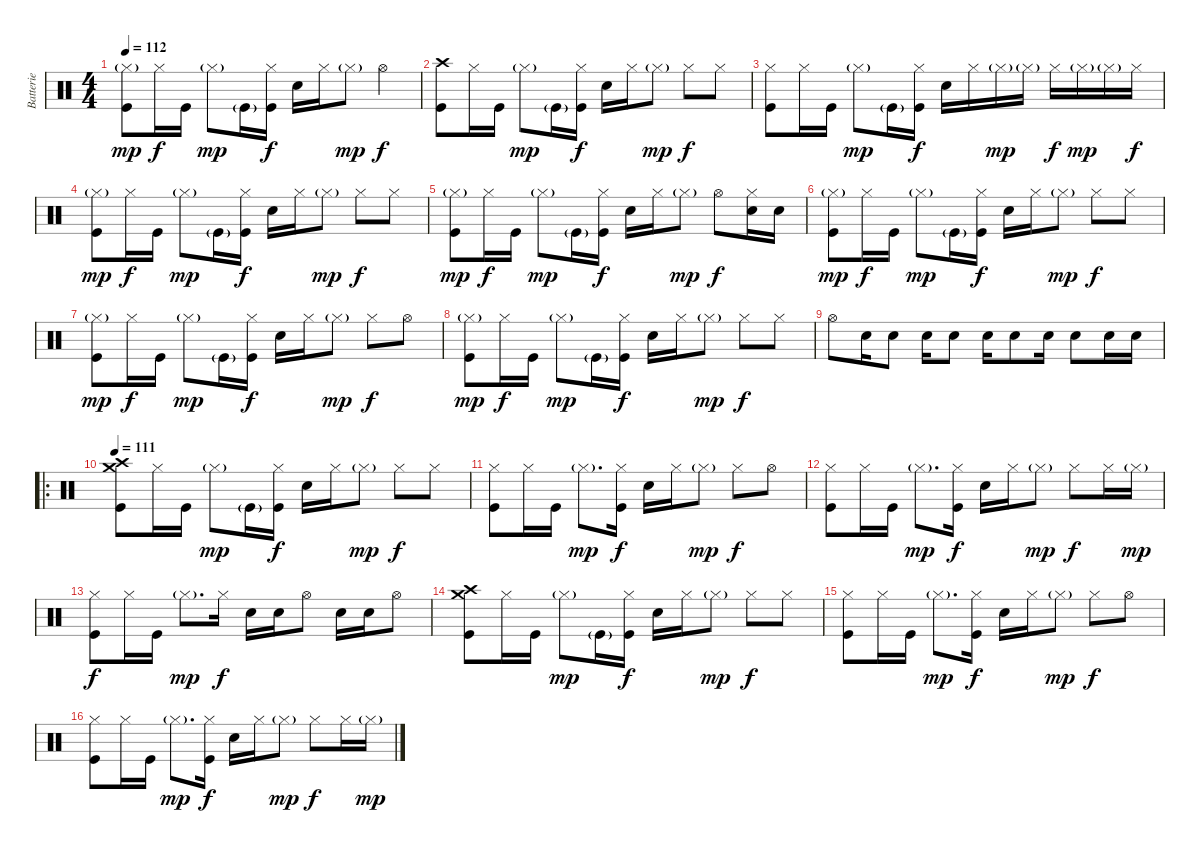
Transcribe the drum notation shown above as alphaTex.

\track ("Batterie" "Batterie") {instrument percussion}
\staff {score}
\articulation defaults
\ts (4 4)
\tempo 112
\clef neutral
\ks c
("Hi-Hat (closed)"{g} "Kick (hit)").8{dy mp} "Hi-Hat (closed)".16{dy f} "Kick (hit)".16 "Hi-Hat (closed)"{g}.8{dy mp} "Kick (hit)"{g}.16 ("Hi-Hat (closed)" "Kick (hit)").16{dy f} "Electric Snare (hit)".16 "Hi-Hat (closed)".16 "Hi-Hat (closed)"{g}.8{dy mp} "Hi-Hat (open)".4{dy f} |
("Crash high (hit)" "Kick (hit)").8 "Hi-Hat (closed)".16 "Kick (hit)".16 "Hi-Hat (closed)"{g}.8{dy mp} "Kick (hit)"{g}.16 ("Hi-Hat (closed)" "Kick (hit)").16{dy f} "Electric Snare (hit)".16 "Hi-Hat (closed)".16 "Hi-Hat (closed)"{g}.8{dy mp} "Hi-Hat (closed)".8{dy f} "Hi-Hat (closed)".8 |
("Hi-Hat (closed)" "Kick (hit)").8 "Hi-Hat (closed)".16 "Kick (hit)".16 "Hi-Hat (closed)"{g}.8{dy mp} "Kick (hit)"{g}.16 ("Hi-Hat (closed)" "Kick (hit)").16{dy f} "Electric Snare (hit)".16 "Hi-Hat (closed)".16 "Hi-Hat (closed)"{g}.16{dy mp} "Hi-Hat (closed)"{g}.16 "Hi-Hat (closed)".16{dy f} "Hi-Hat (closed)"{g}.16{dy mp} "Hi-Hat (closed)"{g}.16 "Hi-Hat (closed)".16{dy f} |
("Hi-Hat (closed)"{g} "Kick (hit)").8{dy mp} "Hi-Hat (closed)".16{dy f} "Kick (hit)".16 "Hi-Hat (closed)"{g}.8{dy mp} "Kick (hit)"{g}.16 ("Hi-Hat (closed)" "Kick (hit)").16{dy f} "Electric Snare (hit)".16 "Hi-Hat (closed)".16 "Hi-Hat (closed)"{g}.8{dy mp} "Hi-Hat (closed)".8{dy f} "Hi-Hat (closed)".8 |
("Hi-Hat (closed)"{g} "Kick (hit)").8{dy mp} "Hi-Hat (closed)".16{dy f} "Kick (hit)".16 "Hi-Hat (closed)"{g}.8{dy mp} "Kick (hit)"{g}.16 ("Hi-Hat (closed)" "Kick (hit)").16{dy f} "Electric Snare (hit)".16 "Hi-Hat (closed)".16 "Hi-Hat (closed)"{g}.8{dy mp} "Hi-Hat (open)".8{dy f} ("Hi-Hat (closed)" "Electric Snare (hit)").16 "Electric Snare (hit)".16 |
("Hi-Hat (closed)"{g} "Kick (hit)").8{dy mp} "Hi-Hat (closed)".16{dy f} "Kick (hit)".16 "Hi-Hat (closed)"{g}.8{dy mp} "Kick (hit)"{g}.16 ("Hi-Hat (closed)" "Kick (hit)").16{dy f} "Electric Snare (hit)".16 "Hi-Hat (closed)".16 "Hi-Hat (closed)"{g}.8{dy mp} "Hi-Hat (closed)".8{dy f} "Hi-Hat (closed)".8 |
("Hi-Hat (closed)"{g} "Kick (hit)").8{dy mp} "Hi-Hat (closed)".16{dy f} "Kick (hit)".16 "Hi-Hat (closed)"{g}.8{dy mp} "Kick (hit)"{g}.16 ("Hi-Hat (closed)" "Kick (hit)").16{dy f} "Electric Snare (hit)".16 "Hi-Hat (closed)".16 "Hi-Hat (closed)"{g}.8{dy mp} "Hi-Hat (closed)".8{dy f} "Hi-Hat (open)".8 |
("Hi-Hat (closed)"{g} "Kick (hit)").8{dy mp} "Hi-Hat (closed)".16{dy f} "Kick (hit)".16 "Hi-Hat (closed)"{g}.8{dy mp} "Kick (hit)"{g}.16 ("Hi-Hat (closed)" "Kick (hit)").16{dy f} "Electric Snare (hit)".16 "Hi-Hat (closed)".16 "Hi-Hat (closed)"{g}.8{dy mp} "Hi-Hat (closed)".8{dy f} "Hi-Hat (closed)".8 |
"Hi-Hat (open)".8 "Electric Snare (hit)".16 "Electric Snare (hit)".8 "Electric Snare (hit)".16 "Electric Snare (hit)".8 "Electric Snare (hit)".16 "Electric Snare (hit)".8 "Electric Snare (hit)".16 "Electric Snare (hit)".8 "Electric Snare (hit)".16 "Electric Snare (hit)".16 |
\ro
\tempo 111
("Crash high (hit)" "Crash medium (hit)" "Kick (hit)").8 "Hi-Hat (closed)".16 "Kick (hit)".16 "Hi-Hat (closed)"{g}.8{dy mp} "Kick (hit)"{g}.16 ("Hi-Hat (closed)" "Kick (hit)").16{dy f} "Electric Snare (hit)".16 "Hi-Hat (closed)".16 "Hi-Hat (closed)"{g}.8{dy mp} "Hi-Hat (closed)".8{dy f} "Hi-Hat (closed)".8 |
("Hi-Hat (closed)" "Kick (hit)").8 "Hi-Hat (closed)".16 "Kick (hit)".16 "Hi-Hat (closed)"{g}.8{d dy mp} ("Hi-Hat (closed)" "Kick (hit)").16{dy f} "Electric Snare (hit)".16 "Hi-Hat (closed)".16 "Hi-Hat (closed)"{g}.8{dy mp} "Hi-Hat (closed)".8{dy f} "Hi-Hat (open)".8 |
("Hi-Hat (closed)" "Kick (hit)").8 "Hi-Hat (closed)".16 "Kick (hit)".16 "Hi-Hat (closed)"{g}.8{d dy mp} ("Hi-Hat (closed)" "Kick (hit)").16{dy f} "Electric Snare (hit)".16 "Hi-Hat (closed)".16 "Hi-Hat (closed)"{g}.8{dy mp} "Hi-Hat (closed)".8{dy f} "Hi-Hat (closed)".16 "Hi-Hat (closed)"{g}.16{dy mp} |
("Hi-Hat (closed)" "Kick (hit)").8{dy f} "Hi-Hat (closed)".16 "Kick (hit)".16 "Hi-Hat (closed)"{g}.8{d dy mp} "Hi-Hat (closed)".16{dy f} "Electric Snare (hit)".16 "Electric Snare (hit)".16 "Hi-Hat (open)".8 "Electric Snare (hit)".16 "Electric Snare (hit)".16 "Hi-Hat (open)".8 |
("Crash high (hit)" "Crash medium (hit)" "Kick (hit)").8 "Hi-Hat (closed)".16 "Kick (hit)".16 "Hi-Hat (closed)"{g}.8{dy mp} "Kick (hit)"{g}.16 ("Hi-Hat (closed)" "Kick (hit)").16{dy f} "Electric Snare (hit)".16 "Hi-Hat (closed)".16 "Hi-Hat (closed)"{g}.8{dy mp} "Hi-Hat (closed)".8{dy f} "Hi-Hat (closed)".8 |
("Hi-Hat (closed)" "Kick (hit)").8 "Hi-Hat (closed)".16 "Kick (hit)".16 "Hi-Hat (closed)"{g}.8{d dy mp} ("Hi-Hat (closed)" "Kick (hit)").16{dy f} "Electric Snare (hit)".16 "Hi-Hat (closed)".16 "Hi-Hat (closed)"{g}.8{dy mp} "Hi-Hat (closed)".8{dy f} "Hi-Hat (open)".8 |
("Hi-Hat (closed)" "Kick (hit)").8 "Hi-Hat (closed)".16 "Kick (hit)".16 "Hi-Hat (closed)"{g}.8{d dy mp} ("Hi-Hat (closed)" "Kick (hit)").16{dy f} "Electric Snare (hit)".16 "Hi-Hat (closed)".16 "Hi-Hat (closed)"{g}.8{dy mp} "Hi-Hat (closed)".8{dy f} "Hi-Hat (closed)".16 "Hi-Hat (closed)"{g}.16{dy mp}
